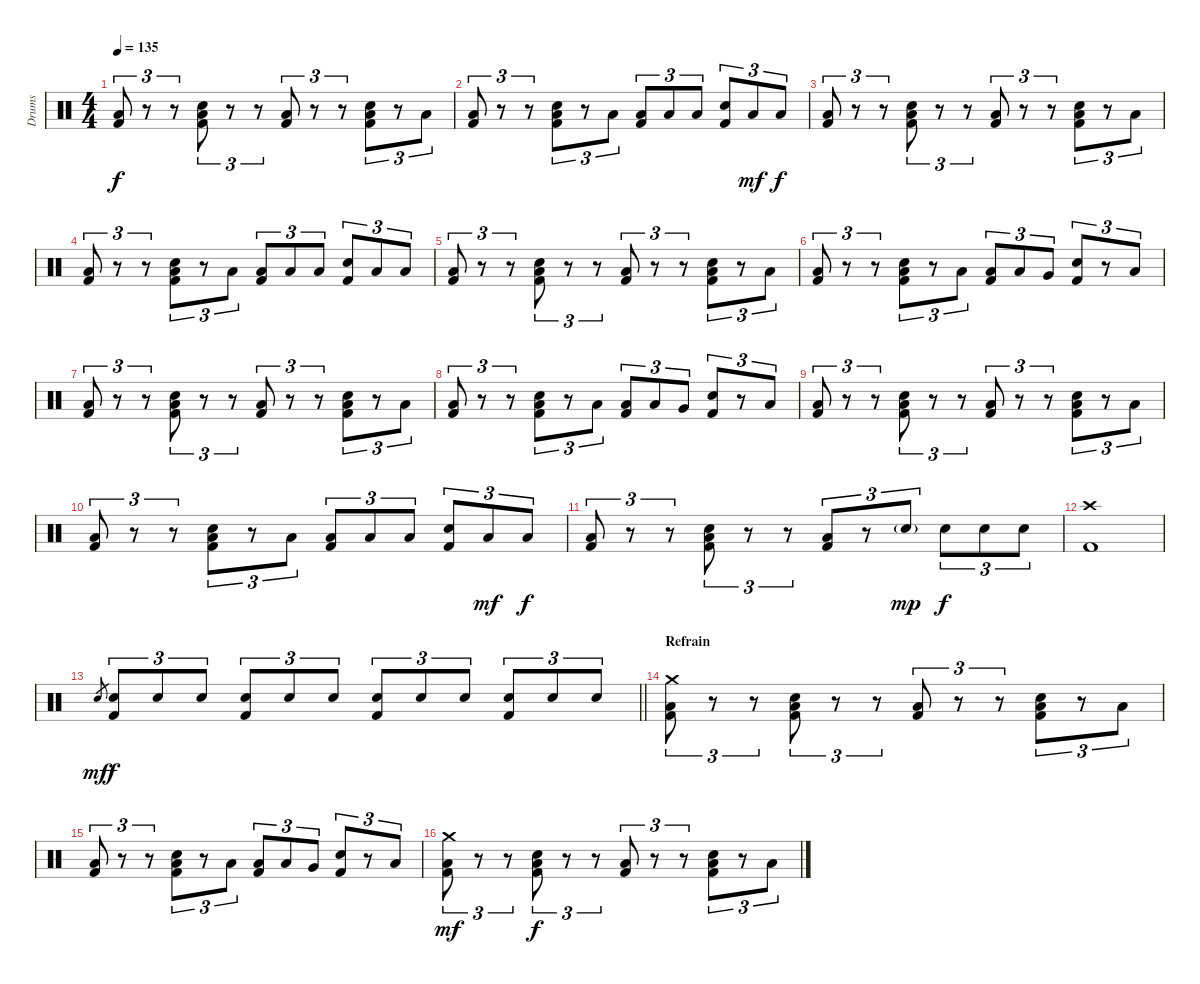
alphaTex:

\track ("Drums" "Drums") {instrument percussion}
\staff {score}
\articulation defaults
\ts (4 4)
\tempo 135
\clef neutral
\ks c
("Low Floor Tom (hit)" "Kick (hit) 2").8{tu (3 2) dy f} r.8{tu (3 2)} r.8{tu (3 2)} ("Electric Snare (hit)" "Low Floor Tom (hit)" "Kick (hit) 2").8{tu (3 2)} r.8{tu (3 2)} r.8{tu (3 2)} ("Low Floor Tom (hit)" "Kick (hit) 2").8{tu (3 2)} r.8{tu (3 2)} r.8{tu (3 2)} ("Electric Snare (hit)" "Low Floor Tom (hit)" "Kick (hit) 2").8{tu (3 2)} r.8{tu (3 2)} "Low Floor Tom (hit)".8{tu (3 2)} |
("Low Floor Tom (hit)" "Kick (hit) 2").8{tu (3 2)} r.8{tu (3 2)} r.8{tu (3 2)} ("Electric Snare (hit)" "Low Floor Tom (hit)" "Kick (hit) 2").8{tu (3 2)} r.8{tu (3 2)} "Low Floor Tom (hit)".8{tu (3 2)} ("Low Floor Tom (hit)" "Kick (hit) 2").8{tu (3 2)} "Low Floor Tom (hit)".8{tu (3 2)} "Low Floor Tom (hit)".8{tu (3 2)} ("Electric Snare (hit)" "Kick (hit) 2").8{tu (3 2)} "Low Floor Tom (hit)".8{tu (3 2) dy mf} "Low Floor Tom (hit)".8{tu (3 2) dy f} |
("Low Floor Tom (hit)" "Kick (hit) 2").8{tu (3 2)} r.8{tu (3 2)} r.8{tu (3 2)} ("Electric Snare (hit)" "Low Floor Tom (hit)" "Kick (hit) 2").8{tu (3 2)} r.8{tu (3 2)} r.8{tu (3 2)} ("Low Floor Tom (hit)" "Kick (hit) 2").8{tu (3 2)} r.8{tu (3 2)} r.8{tu (3 2)} ("Electric Snare (hit)" "Low Floor Tom (hit)" "Kick (hit) 2").8{tu (3 2)} r.8{tu (3 2)} "Low Floor Tom (hit)".8{tu (3 2)} |
("Low Floor Tom (hit)" "Kick (hit) 2").8{tu (3 2)} r.8{tu (3 2)} r.8{tu (3 2)} ("Electric Snare (hit)" "Low Floor Tom (hit)" "Kick (hit) 2").8{tu (3 2)} r.8{tu (3 2)} "Low Floor Tom (hit)".8{tu (3 2)} ("Low Floor Tom (hit)" "Kick (hit) 2").8{tu (3 2)} "Low Floor Tom (hit)".8{tu (3 2)} "Low Floor Tom (hit)".8{tu (3 2)} ("Electric Snare (hit)" "Kick (hit) 2").8{tu (3 2)} "Low Floor Tom (hit)".8{tu (3 2)} "Low Floor Tom (hit)".8{tu (3 2)} |
("Low Floor Tom (hit)" "Kick (hit) 2").8{tu (3 2)} r.8{tu (3 2)} r.8{tu (3 2)} ("Electric Snare (hit)" "Low Floor Tom (hit)" "Kick (hit) 2").8{tu (3 2)} r.8{tu (3 2)} r.8{tu (3 2)} ("Low Floor Tom (hit)" "Kick (hit) 2").8{tu (3 2)} r.8{tu (3 2)} r.8{tu (3 2)} ("Electric Snare (hit)" "Low Floor Tom (hit)" "Kick (hit) 2").8{tu (3 2)} r.8{tu (3 2)} "Low Floor Tom (hit)".8{tu (3 2)} |
("Low Floor Tom (hit)" "Kick (hit) 2").8{tu (3 2)} r.8{tu (3 2)} r.8{tu (3 2)} ("Electric Snare (hit)" "Low Floor Tom (hit)" "Kick (hit) 2").8{tu (3 2)} r.8{tu (3 2)} "Low Floor Tom (hit)".8{tu (3 2)} ("Low Floor Tom (hit)" "Kick (hit) 2").8{tu (3 2)} "Low Tom (hit)".8{tu (3 2)} "Very Low Tom (hit)".8{tu (3 2)} ("Electric Snare (hit)" "Kick (hit) 2").8{tu (3 2)} r.8{tu (3 2)} "Low Floor Tom (hit)".8{tu (3 2)} |
("Low Floor Tom (hit)" "Kick (hit) 2").8{tu (3 2)} r.8{tu (3 2)} r.8{tu (3 2)} ("Electric Snare (hit)" "Low Floor Tom (hit)" "Kick (hit) 2").8{tu (3 2)} r.8{tu (3 2)} r.8{tu (3 2)} ("Low Floor Tom (hit)" "Kick (hit) 2").8{tu (3 2)} r.8{tu (3 2)} r.8{tu (3 2)} ("Electric Snare (hit)" "Low Floor Tom (hit)" "Kick (hit) 2").8{tu (3 2)} r.8{tu (3 2)} "Low Floor Tom (hit)".8{tu (3 2)} |
("Low Floor Tom (hit)" "Kick (hit) 2").8{tu (3 2)} r.8{tu (3 2)} r.8{tu (3 2)} ("Electric Snare (hit)" "Low Floor Tom (hit)" "Kick (hit) 2").8{tu (3 2)} r.8{tu (3 2)} "Low Floor Tom (hit)".8{tu (3 2)} ("Low Floor Tom (hit)" "Kick (hit) 2").8{tu (3 2)} "Low Tom (hit)".8{tu (3 2)} "Very Low Tom (hit)".8{tu (3 2)} ("Electric Snare (hit)" "Kick (hit) 2").8{tu (3 2)} r.8{tu (3 2)} "Low Floor Tom (hit)".8{tu (3 2)} |
("Low Floor Tom (hit)" "Kick (hit) 2").8{tu (3 2)} r.8{tu (3 2)} r.8{tu (3 2)} ("Electric Snare (hit)" "Low Floor Tom (hit)" "Kick (hit) 2").8{tu (3 2)} r.8{tu (3 2)} r.8{tu (3 2)} ("Low Floor Tom (hit)" "Kick (hit) 2").8{tu (3 2)} r.8{tu (3 2)} r.8{tu (3 2)} ("Electric Snare (hit)" "Low Floor Tom (hit)" "Kick (hit) 2").8{tu (3 2)} r.8{tu (3 2)} "Low Floor Tom (hit)".8{tu (3 2)} |
("Low Floor Tom (hit)" "Kick (hit) 2").8{tu (3 2)} r.8{tu (3 2)} r.8{tu (3 2)} ("Electric Snare (hit)" "Low Floor Tom (hit)" "Kick (hit) 2").8{tu (3 2)} r.8{tu (3 2)} "Low Floor Tom (hit)".8{tu (3 2)} ("Low Floor Tom (hit)" "Kick (hit) 2").8{tu (3 2)} "Low Floor Tom (hit)".8{tu (3 2)} "Low Floor Tom (hit)".8{tu (3 2)} ("Electric Snare (hit)" "Kick (hit) 2").8{tu (3 2)} "Low Floor Tom (hit)".8{tu (3 2) dy mf} "Low Floor Tom (hit)".8{tu (3 2) dy f} |
("Low Floor Tom (hit)" "Kick (hit) 2").8{tu (3 2)} r.8{tu (3 2)} r.8{tu (3 2)} ("Electric Snare (hit)" "Low Floor Tom (hit)" "Kick (hit) 2").8{tu (3 2)} r.8{tu (3 2)} r.8{tu (3 2)} ("Low Floor Tom (hit)" "Kick (hit) 2").8{tu (3 2)} r.8{tu (3 2)} "Electric Snare (hit)"{g}.8{tu (3 2) dy mp} "Electric Snare (hit)".8{tu (3 2) dy f} "Electric Snare (hit)".8{tu (3 2)} "Electric Snare (hit)".8{tu (3 2)} |
("Crash high (hit)" "Kick (hit) 2").1 |
\barLineRight lightlight "Electric Snare (hit)".8{gr dy mf}
("Electric Snare (hit)" "Kick (hit) 2").8{tu (3 2) dy f} "Electric Snare (hit)".8{tu (3 2)} "Electric Snare (hit)".8{tu (3 2)} ("Electric Snare (hit)" "Kick (hit) 2").8{tu (3 2)} "Electric Snare (hit)".8{tu (3 2)} "Electric Snare (hit)".8{tu (3 2)} ("Electric Snare (hit)" "Kick (hit) 2").8{tu (3 2)} "Electric Snare (hit)".8{tu (3 2)} "Electric Snare (hit)".8{tu (3 2)} ("Electric Snare (hit)" "Kick (hit) 2").8{tu (3 2)} "Electric Snare (hit)".8{tu (3 2)} "Electric Snare (hit)".8{tu (3 2)} |
\section ("" "Refrain")
("Crash medium (hit)" "Low Floor Tom (hit)" "Kick (hit) 2").8{tu (3 2)} r.8{tu (3 2)} r.8{tu (3 2)} ("Electric Snare (hit)" "Low Floor Tom (hit)" "Kick (hit) 2").8{tu (3 2)} r.8{tu (3 2)} r.8{tu (3 2)} ("Low Floor Tom (hit)" "Kick (hit) 2").8{tu (3 2)} r.8{tu (3 2)} r.8{tu (3 2)} ("Electric Snare (hit)" "Low Floor Tom (hit)" "Kick (hit) 2").8{tu (3 2)} r.8{tu (3 2)} "Low Floor Tom (hit)".8{tu (3 2)} |
("Low Floor Tom (hit)" "Kick (hit) 2").8{tu (3 2)} r.8{tu (3 2)} r.8{tu (3 2)} ("Electric Snare (hit)" "Low Floor Tom (hit)" "Kick (hit) 2").8{tu (3 2)} r.8{tu (3 2)} "Low Floor Tom (hit)".8{tu (3 2)} ("Low Floor Tom (hit)" "Kick (hit) 2").8{tu (3 2)} "Low Tom (hit)".8{tu (3 2)} "Very Low Tom (hit)".8{tu (3 2)} ("Electric Snare (hit)" "Kick (hit) 2").8{tu (3 2)} r.8{tu (3 2)} "Low Floor Tom (hit)".8{tu (3 2)} |
("Crash medium (hit)" "Low Floor Tom (hit)" "Kick (hit) 2").8{tu (3 2) dy mf} r.8{tu (3 2)} r.8{tu (3 2)} ("Electric Snare (hit)" "Low Floor Tom (hit)" "Kick (hit) 2").8{tu (3 2) dy f} r.8{tu (3 2)} r.8{tu (3 2)} ("Low Floor Tom (hit)" "Kick (hit) 2").8{tu (3 2)} r.8{tu (3 2)} r.8{tu (3 2)} ("Electric Snare (hit)" "Low Floor Tom (hit)" "Kick (hit) 2").8{tu (3 2)} r.8{tu (3 2)} "Low Floor Tom (hit)".8{tu (3 2)}
